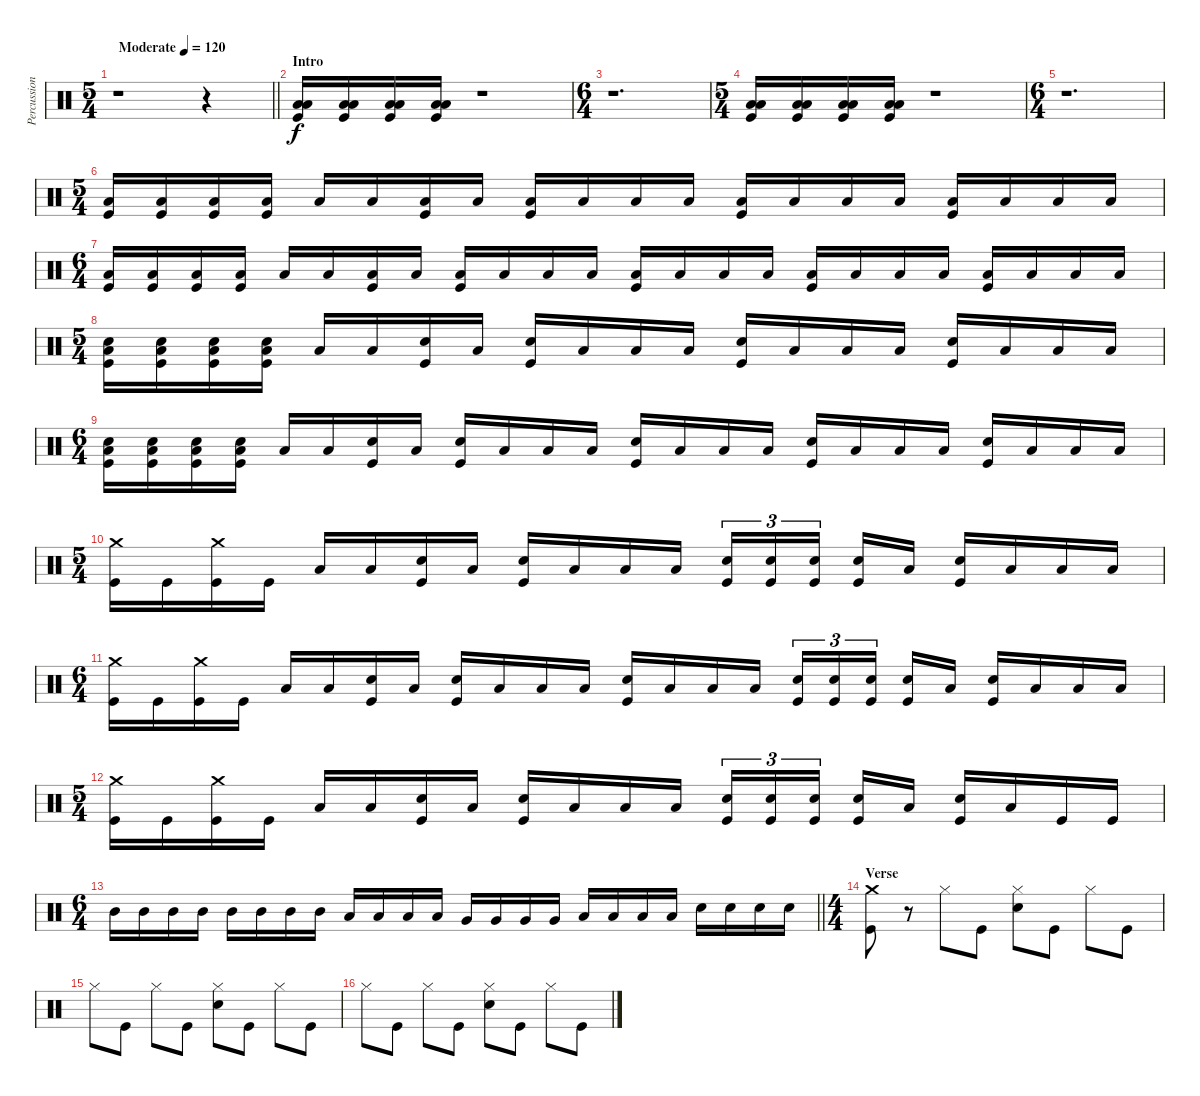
\track ("Percussion" "Percussion") {instrument percussion}
\staff {score}
\articulation defaults
\ts (5 4)
\tempo (120 "Moderate")
\clef neutral
\barLineRight lightlight
\ks c
r.1{dy f} r.4 |
\section ("" "Intro")
("Low Tom (hit)" "Low Floor Tom (hit)" "Kick (hit)").16 ("Low Tom (hit)" "Low Floor Tom (hit)" "Kick (hit)").16 ("Low Tom (hit)" "Low Floor Tom (hit)" "Kick (hit)").16 ("Low Tom (hit)" "Low Floor Tom (hit)" "Kick (hit)").16 r.1 |
\ts (6 4)
r.1{d} |
\ts (5 4)
("Low Tom (hit)" "Low Floor Tom (hit)" "Kick (hit)").16 ("Low Tom (hit)" "Low Floor Tom (hit)" "Kick (hit)").16 ("Low Tom (hit)" "Low Floor Tom (hit)" "Kick (hit)").16 ("Low Tom (hit)" "Low Floor Tom (hit)" "Kick (hit)").16 r.1 |
\ts (6 4)
r.1{d} |
\ts (5 4)
("Low Floor Tom (hit)" "Kick (hit)").16 ("Low Floor Tom (hit)" "Kick (hit)").16 ("Low Floor Tom (hit)" "Kick (hit)").16 ("Low Floor Tom (hit)" "Kick (hit)").16 "Low Floor Tom (hit)".16 "Low Floor Tom (hit)".16 ("Low Floor Tom (hit)" "Kick (hit)").16 "Low Floor Tom (hit)".16 ("Low Floor Tom (hit)" "Kick (hit)").16 "Low Floor Tom (hit)".16 "Low Floor Tom (hit)".16 "Low Floor Tom (hit)".16 ("Low Floor Tom (hit)" "Kick (hit)").16 "Low Floor Tom (hit)".16 "Low Floor Tom (hit)".16 "Low Floor Tom (hit)".16 ("Low Floor Tom (hit)" "Kick (hit)").16 "Low Floor Tom (hit)".16 "Low Floor Tom (hit)".16 "Low Floor Tom (hit)".16 |
\ts (6 4)
("Low Floor Tom (hit)" "Kick (hit)").16 ("Low Floor Tom (hit)" "Kick (hit)").16 ("Low Floor Tom (hit)" "Kick (hit)").16 ("Low Floor Tom (hit)" "Kick (hit)").16 "Low Floor Tom (hit)".16 "Low Floor Tom (hit)".16 ("Low Floor Tom (hit)" "Kick (hit)").16 "Low Floor Tom (hit)".16 ("Low Floor Tom (hit)" "Kick (hit)").16 "Low Floor Tom (hit)".16 "Low Floor Tom (hit)".16 "Low Floor Tom (hit)".16 ("Low Floor Tom (hit)" "Kick (hit)").16 "Low Floor Tom (hit)".16 "Low Floor Tom (hit)".16 "Low Floor Tom (hit)".16 ("Low Floor Tom (hit)" "Kick (hit)").16 "Low Floor Tom (hit)".16 "Low Floor Tom (hit)".16 "Low Floor Tom (hit)".16 ("Low Floor Tom (hit)" "Kick (hit)").16 "Low Floor Tom (hit)".16 "Low Floor Tom (hit)".16 "Low Floor Tom (hit)".16 |
\ts (5 4)
("Low Floor Tom (hit)" "Snare (hit) 2" "Kick (hit)").16 ("Low Floor Tom (hit)" "Snare (hit) 2" "Kick (hit)").16 ("Low Floor Tom (hit)" "Snare (hit) 2" "Kick (hit)").16 ("Low Floor Tom (hit)" "Snare (hit) 2" "Kick (hit)").16 "Low Floor Tom (hit)".16 "Low Floor Tom (hit)".16 ("Snare (hit) 2" "Kick (hit)").16 "Low Floor Tom (hit)".16 ("Snare (hit) 2" "Kick (hit)").16 "Low Floor Tom (hit)".16 "Low Floor Tom (hit)".16 "Low Floor Tom (hit)".16 ("Snare (hit) 2" "Kick (hit)").16 "Low Floor Tom (hit)".16 "Low Floor Tom (hit)".16 "Low Floor Tom (hit)".16 ("Snare (hit) 2" "Kick (hit)").16 "Low Floor Tom (hit)".16 "Low Floor Tom (hit)".16 "Low Floor Tom (hit)".16 |
\ts (6 4)
("Low Floor Tom (hit)" "Snare (hit) 2" "Kick (hit)").16 ("Low Floor Tom (hit)" "Snare (hit) 2" "Kick (hit)").16 ("Low Floor Tom (hit)" "Snare (hit) 2" "Kick (hit)").16 ("Low Floor Tom (hit)" "Snare (hit) 2" "Kick (hit)").16 "Low Floor Tom (hit)".16 "Low Floor Tom (hit)".16 ("Snare (hit) 2" "Kick (hit)").16 "Low Floor Tom (hit)".16 ("Snare (hit) 2" "Kick (hit)").16 "Low Floor Tom (hit)".16 "Low Floor Tom (hit)".16 "Low Floor Tom (hit)".16 ("Snare (hit) 2" "Kick (hit)").16 "Low Floor Tom (hit)".16 "Low Floor Tom (hit)".16 "Low Floor Tom (hit)".16 ("Snare (hit) 2" "Kick (hit)").16 "Low Floor Tom (hit)".16 "Low Floor Tom (hit)".16 "Low Floor Tom (hit)".16 ("Snare (hit) 2" "Kick (hit)").16 "Low Floor Tom (hit)".16 "Low Floor Tom (hit)".16 "Low Floor Tom (hit)".16 |
\ts (5 4)
("Crash medium (hit)" "Kick (hit)").16 "Kick (hit)".16 ("Crash medium (hit)" "Kick (hit)").16 "Kick (hit)".16 "Low Floor Tom (hit)".16 "Low Floor Tom (hit)".16 ("Snare (hit) 2" "Kick (hit)").16 "Low Floor Tom (hit)".16 ("Snare (hit) 2" "Kick (hit)").16 "Low Floor Tom (hit)".16 "Low Floor Tom (hit)".16 "Low Floor Tom (hit)".16 ("Snare (hit) 2" "Kick (hit)").16{tu (3 2)} ("Snare (hit) 2" "Kick (hit)").16{tu (3 2)} ("Snare (hit) 2" "Kick (hit)").16{tu (3 2) beam splitsecondary} ("Snare (hit) 2" "Kick (hit)").16 "Low Floor Tom (hit)".16 ("Snare (hit) 2" "Kick (hit)").16 "Low Floor Tom (hit)".16 "Low Floor Tom (hit)".16 "Low Floor Tom (hit)".16 |
\ts (6 4)
("Crash medium (hit)" "Kick (hit)").16 "Kick (hit)".16 ("Crash medium (hit)" "Kick (hit)").16 "Kick (hit)".16 "Low Floor Tom (hit)".16 "Low Floor Tom (hit)".16 ("Snare (hit) 2" "Kick (hit)").16 "Low Floor Tom (hit)".16 ("Snare (hit) 2" "Kick (hit)").16 "Low Floor Tom (hit)".16 "Low Floor Tom (hit)".16 "Low Floor Tom (hit)".16 ("Snare (hit) 2" "Kick (hit)").16 "Low Floor Tom (hit)".16 "Low Floor Tom (hit)".16 "Low Floor Tom (hit)".16{beam splitsecondary} ("Snare (hit) 2" "Kick (hit)").16{tu (3 2)} ("Snare (hit) 2" "Kick (hit)").16{tu (3 2)} ("Snare (hit) 2" "Kick (hit)").16{tu (3 2) beam splitsecondary} ("Snare (hit) 2" "Kick (hit)").16 "Low Floor Tom (hit)".16 ("Snare (hit) 2" "Kick (hit)").16 "Low Floor Tom (hit)".16 "Low Floor Tom (hit)".16 "Low Floor Tom (hit)".16 |
\ts (5 4)
("Crash medium (hit)" "Kick (hit)").16 "Kick (hit)".16 ("Crash medium (hit)" "Kick (hit)").16 "Kick (hit)".16 "Low Floor Tom (hit)".16 "Low Floor Tom (hit)".16 ("Snare (hit) 2" "Kick (hit)").16 "Low Floor Tom (hit)".16 ("Snare (hit) 2" "Kick (hit)").16 "Low Floor Tom (hit)".16 "Low Floor Tom (hit)".16 "Low Floor Tom (hit)".16 ("Snare (hit) 2" "Kick (hit)").16{tu (3 2)} ("Snare (hit) 2" "Kick (hit)").16{tu (3 2)} ("Snare (hit) 2" "Kick (hit)").16{tu (3 2) beam splitsecondary} ("Snare (hit) 2" "Kick (hit)").16 "Low Floor Tom (hit)".16 ("Snare (hit) 2" "Kick (hit)").16 "Low Floor Tom (hit)".16 "Kick (hit)".16 "Kick (hit)".16 |
\ts (6 4)
\barLineRight lightlight "Mid Tom (hit)".16 "Mid Tom (hit)".16 "Mid Tom (hit)".16 "Mid Tom (hit)".16 "Mid Tom (hit)".16 "Mid Tom (hit)".16 "Mid Tom (hit)".16 "Mid Tom (hit)".16 "Low Tom (hit)".16 "Low Tom (hit)".16 "Low Tom (hit)".16 "Low Tom (hit)".16 "Very Low Tom (hit)".16 "Very Low Tom (hit)".16 "Very Low Tom (hit)".16 "Very Low Tom (hit)".16 "Low Floor Tom (hit)".16 "Low Floor Tom (hit)".16 "Low Floor Tom (hit)".16 "Low Floor Tom (hit)".16 "Snare (hit) 2".16 "Snare (hit) 2".16 "Snare (hit) 2".16 "Snare (hit) 2".16
|
\ts (4 4)
\section ("" "Verse")
("Crash medium (hit)" "Kick (hit)").8 r.8 "Hi-Hat (closed)".8 "Kick (hit)".8 ("Hi-Hat (closed)" "Snare (hit) 2").8 "Kick (hit)".8 "Hi-Hat (closed)".8 "Kick (hit)".8 |
"Hi-Hat (closed)".8 "Kick (hit)".8 "Hi-Hat (closed)".8 "Kick (hit)".8 ("Hi-Hat (closed)" "Snare (hit) 2").8 "Kick (hit)".8 "Hi-Hat (closed)".8 "Kick (hit)".8 |
"Hi-Hat (closed)".8 "Kick (hit)".8 "Hi-Hat (closed)".8 "Kick (hit)".8 ("Hi-Hat (closed)" "Snare (hit) 2").8 "Kick (hit)".8 "Hi-Hat (closed)".8 "Kick (hit)".8
